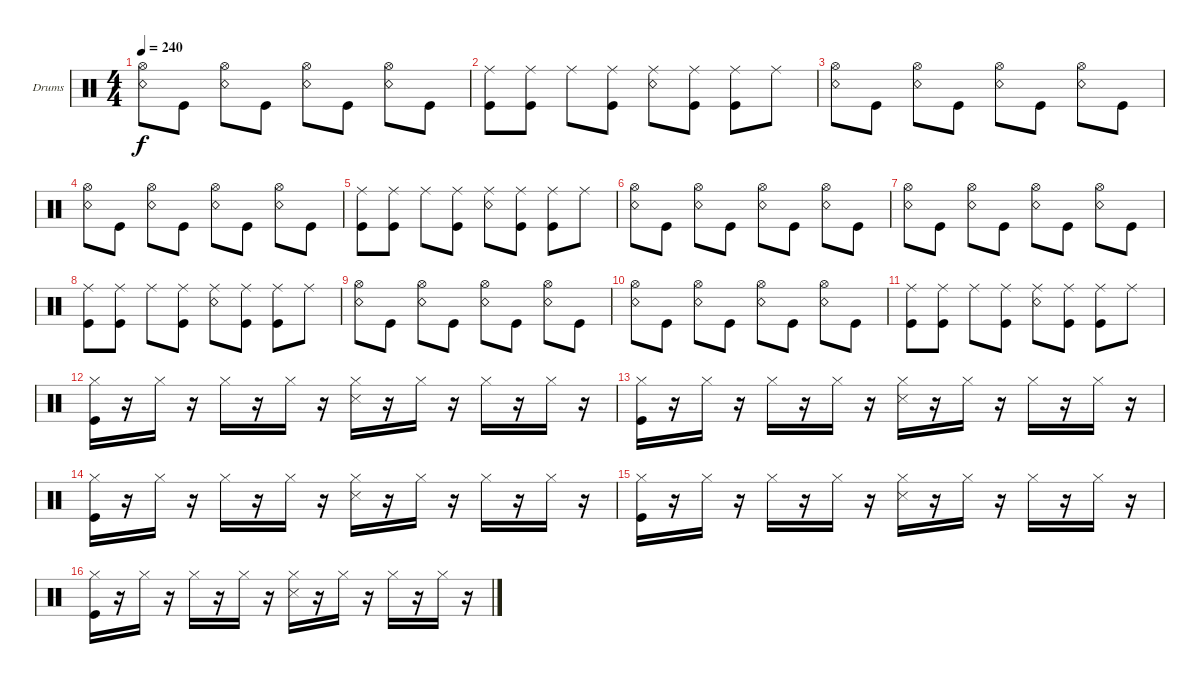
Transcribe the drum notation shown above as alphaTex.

\bracketExtendMode groupsimilarinstruments
\firstSystemTrackNameOrientation horizontal
\otherSystemsTrackNameOrientation horizontal
\track ("Drumkit" "Drums") {instrument percussion}
\staff {score}
\articulation defaults
\ts (4 4)
\tempo 240
\clef neutral
\ks c
("Snare (rim shot)" "Hi-Hat (open)").8{dy f} "Kick (hit)".8 ("Snare (rim shot)" "Hi-Hat (open)").8 "Kick (hit)".8 ("Snare (rim shot)" "Hi-Hat (open)").8 "Kick (hit)".8 ("Snare (rim shot)" "Hi-Hat (open)").8 "Kick (hit)".8 |
("Ride (middle)" "Kick (hit)").8 ("Ride (middle)" "Kick (hit)").8 "Ride (middle)".8 ("Ride (middle)" "Kick (hit)").8 ("Ride (middle)" "Snare (rim shot)").8 ("Ride (middle)" "Kick (hit)").8 ("Ride (middle)" "Kick (hit)").8 "Ride (middle)".8 |
("Snare (rim shot)" "Hi-Hat (open)").8 "Kick (hit)".8 ("Snare (rim shot)" "Hi-Hat (open)").8 "Kick (hit)".8 ("Snare (rim shot)" "Hi-Hat (open)").8 "Kick (hit)".8 ("Snare (rim shot)" "Hi-Hat (open)").8 "Kick (hit)".8 |
("Snare (rim shot)" "Hi-Hat (open)").8 "Kick (hit)".8 ("Snare (rim shot)" "Hi-Hat (open)").8 "Kick (hit)".8 ("Snare (rim shot)" "Hi-Hat (open)").8 "Kick (hit)".8 ("Snare (rim shot)" "Hi-Hat (open)").8 "Kick (hit)".8 |
("Ride (middle)" "Kick (hit)").8 ("Ride (middle)" "Kick (hit)").8 "Ride (middle)".8 ("Ride (middle)" "Kick (hit)").8 ("Ride (middle)" "Snare (rim shot)").8 ("Ride (middle)" "Kick (hit)").8 ("Ride (middle)" "Kick (hit)").8 "Ride (middle)".8 |
("Snare (rim shot)" "Hi-Hat (open)").8 "Kick (hit)".8 ("Snare (rim shot)" "Hi-Hat (open)").8 "Kick (hit)".8 ("Snare (rim shot)" "Hi-Hat (open)").8 "Kick (hit)".8 ("Snare (rim shot)" "Hi-Hat (open)").8 "Kick (hit)".8 |
("Snare (rim shot)" "Hi-Hat (open)").8 "Kick (hit)".8 ("Snare (rim shot)" "Hi-Hat (open)").8 "Kick (hit)".8 ("Snare (rim shot)" "Hi-Hat (open)").8 "Kick (hit)".8 ("Snare (rim shot)" "Hi-Hat (open)").8 "Kick (hit)".8 |
("Ride (middle)" "Kick (hit)").8 ("Ride (middle)" "Kick (hit)").8 "Ride (middle)".8 ("Ride (middle)" "Kick (hit)").8 ("Ride (middle)" "Snare (rim shot)").8 ("Ride (middle)" "Kick (hit)").8 ("Ride (middle)" "Kick (hit)").8 "Ride (middle)".8 |
("Snare (rim shot)" "Hi-Hat (open)").8 "Kick (hit)".8 ("Snare (rim shot)" "Hi-Hat (open)").8 "Kick (hit)".8 ("Snare (rim shot)" "Hi-Hat (open)").8 "Kick (hit)".8 ("Snare (rim shot)" "Hi-Hat (open)").8 "Kick (hit)".8 |
("Snare (rim shot)" "Hi-Hat (open)").8 "Kick (hit)".8 ("Snare (rim shot)" "Hi-Hat (open)").8 "Kick (hit)".8 ("Snare (rim shot)" "Hi-Hat (open)").8 "Kick (hit)".8 ("Snare (rim shot)" "Hi-Hat (open)").8 "Kick (hit)".8 |
("Ride (middle)" "Kick (hit)").8 ("Ride (middle)" "Kick (hit)").8 "Ride (middle)".8 ("Ride (middle)" "Kick (hit)").8 ("Ride (middle)" "Snare (rim shot)").8 ("Ride (middle)" "Kick (hit)").8 ("Ride (middle)" "Kick (hit)").8 "Ride (middle)".8 |
("Hi-Hat (closed)" "Kick (hit)").16 r.16 "Hi-Hat (closed)".16 r.16 "Hi-Hat (closed)".16 r.16 "Hi-Hat (closed)".16 r.16 ("Hi-Hat (closed)" "Snare (side stick) 3").16 r.16 "Hi-Hat (closed)".16 r.16 "Hi-Hat (closed)".16 r.16 "Hi-Hat (closed)".16 r.16 |
("Hi-Hat (closed)" "Kick (hit)").16 r.16 "Hi-Hat (closed)".16 r.16 "Hi-Hat (closed)".16 r.16 "Hi-Hat (closed)".16 r.16 ("Hi-Hat (closed)" "Snare (side stick) 3").16 r.16 "Hi-Hat (closed)".16 r.16 "Hi-Hat (closed)".16 r.16 "Hi-Hat (closed)".16 r.16 |
("Hi-Hat (closed)" "Kick (hit)").16 r.16 "Hi-Hat (closed)".16 r.16 "Hi-Hat (closed)".16 r.16 "Hi-Hat (closed)".16 r.16 ("Hi-Hat (closed)" "Snare (side stick) 3").16 r.16 "Hi-Hat (closed)".16 r.16 "Hi-Hat (closed)".16 r.16 "Hi-Hat (closed)".16 r.16 |
("Hi-Hat (closed)" "Kick (hit)").16 r.16 "Hi-Hat (closed)".16 r.16 "Hi-Hat (closed)".16 r.16 "Hi-Hat (closed)".16 r.16 ("Hi-Hat (closed)" "Snare (side stick) 3").16 r.16 "Hi-Hat (closed)".16 r.16 "Hi-Hat (closed)".16 r.16 "Hi-Hat (closed)".16 r.16 |
("Hi-Hat (closed)" "Kick (hit)").16 r.16 "Hi-Hat (closed)".16 r.16 "Hi-Hat (closed)".16 r.16 "Hi-Hat (closed)".16 r.16 ("Hi-Hat (closed)" "Snare (side stick) 3").16 r.16 "Hi-Hat (closed)".16 r.16 "Hi-Hat (closed)".16 r.16 "Hi-Hat (closed)".16 r.16
